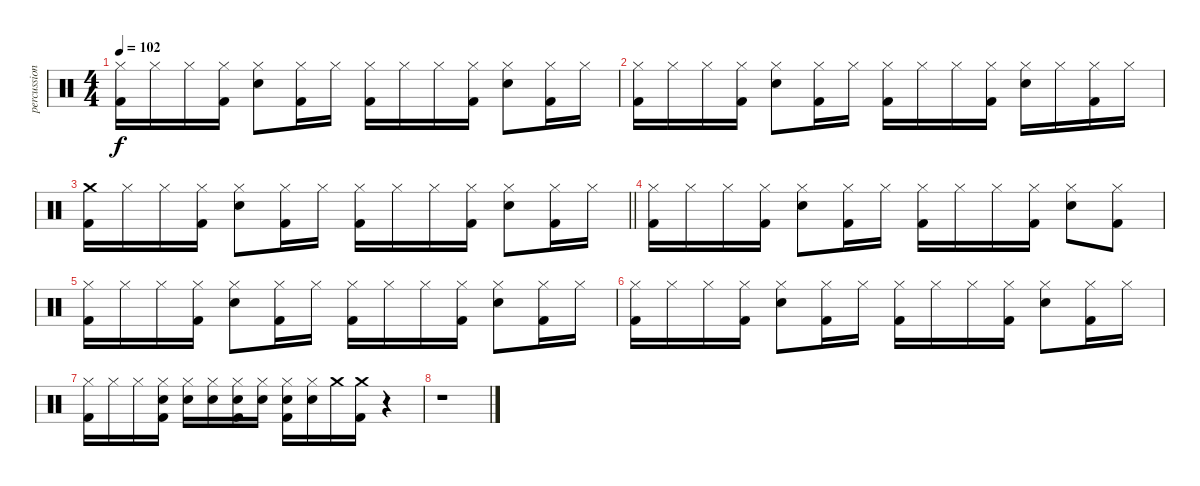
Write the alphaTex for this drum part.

\track ("percussion" "percussion") {instrument percussion}
\staff {score}
\articulation defaults
\ts (4 4)
\tempo 102
\clef neutral
\ks aminor
("Hi-Hat (closed)" "Kick (hit) 2").16{dy f} "Hi-Hat (closed)".16 "Hi-Hat (closed)".16 ("Hi-Hat (closed)" "Kick (hit) 2").16 ("Snare (hit) 2" "Hi-Hat (closed)").8 ("Hi-Hat (closed)" "Kick (hit) 2").16 "Hi-Hat (closed)".16 ("Hi-Hat (closed)" "Kick (hit) 2").16 "Hi-Hat (closed)".16 "Hi-Hat (closed)".16 ("Hi-Hat (closed)" "Kick (hit) 2").16 ("Snare (hit) 2" "Hi-Hat (closed)").8 ("Hi-Hat (closed)" "Kick (hit) 2").16 "Hi-Hat (closed)".16 |
("Hi-Hat (closed)" "Kick (hit) 2").16 "Hi-Hat (closed)".16 "Hi-Hat (closed)".16 ("Hi-Hat (closed)" "Kick (hit) 2").16 ("Snare (hit) 2" "Hi-Hat (closed)").8 ("Hi-Hat (closed)" "Kick (hit) 2").16 "Hi-Hat (closed)".16 ("Hi-Hat (closed)" "Kick (hit) 2").16 "Hi-Hat (closed)".16 "Hi-Hat (closed)".16 ("Hi-Hat (closed)" "Kick (hit) 2").16 ("Snare (hit) 2" "Hi-Hat (closed)").16 "Hi-Hat (closed)".16 ("Hi-Hat (closed)" "Kick (hit) 2").16 "Hi-Hat (closed)".16 |
\barLineRight lightlight
("Crash medium (hit)" "Kick (hit) 2").16 "Hi-Hat (closed)".16 "Hi-Hat (closed)".16 ("Hi-Hat (closed)" "Kick (hit) 2").16 ("Snare (hit) 2" "Hi-Hat (closed)").8 ("Hi-Hat (closed)" "Kick (hit) 2").16 "Hi-Hat (closed)".16 ("Hi-Hat (closed)" "Kick (hit) 2").16 "Hi-Hat (closed)".16 "Hi-Hat (closed)".16 ("Hi-Hat (closed)" "Kick (hit) 2").16 ("Snare (hit) 2" "Hi-Hat (closed)").8 ("Hi-Hat (closed)" "Kick (hit) 2").16 "Hi-Hat (closed)".16 |
("Hi-Hat (closed)" "Kick (hit) 2").16 "Hi-Hat (closed)".16 "Hi-Hat (closed)".16 ("Hi-Hat (closed)" "Kick (hit) 2").16 ("Snare (hit) 2" "Hi-Hat (closed)").8 ("Hi-Hat (closed)" "Kick (hit) 2").16 "Hi-Hat (closed)".16 ("Hi-Hat (closed)" "Kick (hit) 2").16 "Hi-Hat (closed)".16 "Hi-Hat (closed)".16 ("Hi-Hat (closed)" "Kick (hit) 2").16 ("Snare (hit) 2" "Hi-Hat (closed)").8 ("Hi-Hat (closed)" "Kick (hit) 2").8 |
("Hi-Hat (closed)" "Kick (hit) 2").16 "Hi-Hat (closed)".16 "Hi-Hat (closed)".16 ("Hi-Hat (closed)" "Kick (hit) 2").16 ("Snare (hit) 2" "Hi-Hat (closed)").8 ("Hi-Hat (closed)" "Kick (hit) 2").16 "Hi-Hat (closed)".16 ("Hi-Hat (closed)" "Kick (hit) 2").16 "Hi-Hat (closed)".16 "Hi-Hat (closed)".16 ("Hi-Hat (closed)" "Kick (hit) 2").16 ("Snare (hit) 2" "Hi-Hat (closed)").8 ("Hi-Hat (closed)" "Kick (hit) 2").16 "Hi-Hat (closed)".16 |
("Hi-Hat (closed)" "Kick (hit) 2").16 "Hi-Hat (closed)".16 "Hi-Hat (closed)".16 ("Hi-Hat (closed)" "Kick (hit) 2").16 ("Snare (hit) 2" "Hi-Hat (closed)").8 ("Hi-Hat (closed)" "Kick (hit) 2").16 "Hi-Hat (closed)".16 ("Hi-Hat (closed)" "Kick (hit) 2").16 "Hi-Hat (closed)".16 "Hi-Hat (closed)".16 ("Hi-Hat (closed)" "Kick (hit) 2").16 ("Snare (hit) 2" "Hi-Hat (closed)").8 ("Hi-Hat (closed)" "Kick (hit) 2").16 "Hi-Hat (closed)".16 |
("Hi-Hat (closed)" "Kick (hit) 2").16 "Hi-Hat (closed)".16 "Hi-Hat (closed)".16 ("Snare (hit) 2" "Hi-Hat (closed)" "Kick (hit) 2").16 ("Snare (hit) 2" "Hi-Hat (closed)").16 ("Snare (hit) 2" "Hi-Hat (closed)").16 ("Snare (hit) 2" "Hi-Hat (closed)" "Kick (hit) 2").16 ("Snare (hit) 2" "Hi-Hat (closed)").16 ("Snare (hit) 2" "Hi-Hat (closed)" "Kick (hit) 2").16 ("Snare (hit) 2" "Hi-Hat (closed)").16 "Crash medium (hit)".16 ("Crash medium (hit)" "Kick (hit) 2").16 r.4 |
r.1
